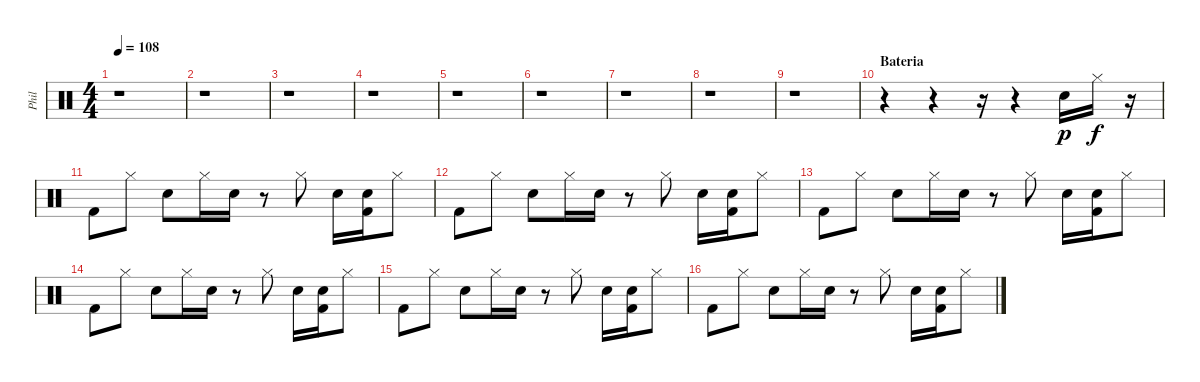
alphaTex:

\track ("Phil" "Phil") {instrument percussion}
\staff {score}
\articulation defaults
\ts (4 4)
\tempo 108
\clef neutral
\ks c
r.1{dy p} |
r.1 |
r.1 |
r.1 |
r.1 |
r.1 |
r.1 |
r.1 |
r.1 |
\section ("" "Bateria")
r.4 r.4 r.16 r.4 "Electric Snare (hit)".16 "Hi-Hat (closed)".16{dy f} r.16 |
"Kick (hit) 2".8 "Hi-Hat (closed)".8 "Electric Snare (hit)".8 "Hi-Hat (closed)".16 "Electric Snare (hit)".16 r.8 "Hi-Hat (closed)".8 "Electric Snare (hit)".16 ("Electric Snare (hit)" "Kick (hit) 2").16 "Hi-Hat (closed)".8 |
"Kick (hit) 2".8 "Hi-Hat (closed)".8 "Electric Snare (hit)".8 "Hi-Hat (closed)".16 "Electric Snare (hit)".16 r.8 "Hi-Hat (closed)".8 "Electric Snare (hit)".16 ("Electric Snare (hit)" "Kick (hit) 2").16 "Hi-Hat (closed)".8 |
"Kick (hit) 2".8 "Hi-Hat (closed)".8 "Electric Snare (hit)".8 "Hi-Hat (closed)".16 "Electric Snare (hit)".16 r.8 "Hi-Hat (closed)".8 "Electric Snare (hit)".16 ("Electric Snare (hit)" "Kick (hit) 2").16 "Hi-Hat (closed)".8 |
"Kick (hit) 2".8 "Hi-Hat (closed)".8 "Electric Snare (hit)".8 "Hi-Hat (closed)".16 "Electric Snare (hit)".16 r.8 "Hi-Hat (closed)".8 "Electric Snare (hit)".16 ("Electric Snare (hit)" "Kick (hit) 2").16 "Hi-Hat (closed)".8 |
"Kick (hit) 2".8 "Hi-Hat (closed)".8 "Electric Snare (hit)".8 "Hi-Hat (closed)".16 "Electric Snare (hit)".16 r.8 "Hi-Hat (closed)".8 "Electric Snare (hit)".16 ("Electric Snare (hit)" "Kick (hit) 2").16 "Hi-Hat (closed)".8 |
"Kick (hit) 2".8 "Hi-Hat (closed)".8 "Electric Snare (hit)".8 "Hi-Hat (closed)".16 "Electric Snare (hit)".16 r.8 "Hi-Hat (closed)".8 "Electric Snare (hit)".16 ("Electric Snare (hit)" "Kick (hit) 2").16 "Hi-Hat (closed)".8
